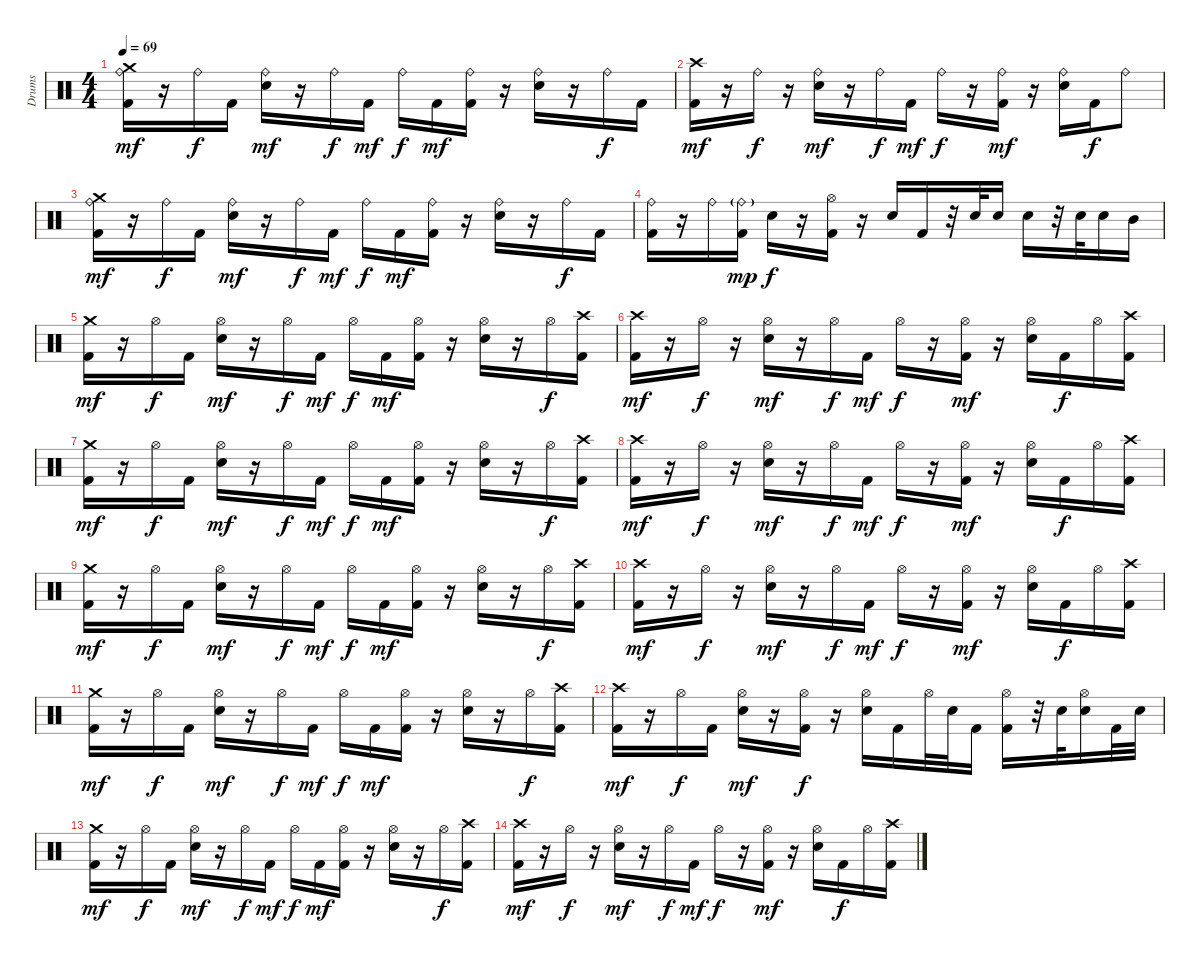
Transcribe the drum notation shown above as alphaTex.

\track ("Drums" "Drums") {instrument percussion}
\staff {score}
\articulation defaults
\ts (4 4)
\tempo 69
\clef neutral
\ks c
("Ride (bell)" "Kick (hit) 2" "Crash medium (hit)").16{dy mf} r.16 "Ride (bell)".16{dy f} "Kick (hit) 2".16 ("Ride (bell)" "Electric Snare (hit)").16{dy mf} r.16 "Ride (bell)".16{dy f} "Kick (hit) 2".16{dy mf} "Ride (bell)".16{dy f} "Kick (hit) 2".16{dy mf} ("Ride (bell)" "Kick (hit) 2").16 r.16 ("Ride (bell)" "Electric Snare (hit)").16 r.16 "Ride (bell)".16{dy f} "Kick (hit) 2".16 |
("Kick (hit) 2" "Crash high (hit)").16{dy mf} r.16 "Ride (bell)".16{dy f} r.16 ("Ride (bell)" "Electric Snare (hit)").16{dy mf} r.16 "Ride (bell)".16{dy f} "Kick (hit) 2".16{dy mf} "Ride (bell)".16{dy f} r.16 ("Ride (bell)" "Kick (hit) 2").16{dy mf} r.16 ("Ride (bell)" "Electric Snare (hit)").16 "Kick (hit) 2".16{dy f} "Ride (bell)".8 |
("Ride (bell)" "Kick (hit) 2" "Crash medium (hit)").16{dy mf} r.16 "Ride (bell)".16{dy f} "Kick (hit) 2".16 ("Ride (bell)" "Electric Snare (hit)").16{dy mf} r.16 "Ride (bell)".16{dy f} "Kick (hit) 2".16{dy mf} "Ride (bell)".16{dy f} "Kick (hit) 2".16{dy mf} ("Ride (bell)" "Kick (hit) 2").16 r.16 ("Ride (bell)" "Electric Snare (hit)").16 r.16 "Ride (bell)".16{dy f} "Kick (hit) 2".16 |
("Kick (hit) 2" "Ride (bell)").16 r.16 "Ride (bell)".16 ("Kick (hit) 2" "Ride (bell)"{g}).16{dy mp} "Electric Snare (hit)".16{dy f} r.16 ("Kick (hit) 2" "Hi-Hat (open)").16 r.16 "Electric Snare (hit)".16 "Kick (hit) 2".16 r.32 "Electric Snare (hit)".32 "Electric Snare (hit)".16 "Electric Snare (hit)".16 r.32 "Electric Snare (hit)".32 "Electric Snare (hit)".16 "Mid Tom (hit)".16 |
("Kick (hit) 2" "Crash medium (hit)").16{dy mf} r.16 "Hi-Hat (open)".16{dy f} "Kick (hit) 2".16 ("Hi-Hat (open)" "Electric Snare (hit)").16{dy mf} r.16 "Hi-Hat (open)".16{dy f} "Kick (hit) 2".16{dy mf} "Hi-Hat (open)".16{dy f} "Kick (hit) 2".16{dy mf} ("Hi-Hat (open)" "Kick (hit) 2").16 r.16 ("Hi-Hat (open)" "Electric Snare (hit)").16 r.16 "Hi-Hat (open)".16{dy f} ("Kick (hit) 2" "Crash high (hit)").16 |
("Kick (hit) 2" "Crash high (hit)").16{dy mf} r.16 "Hi-Hat (open)".16{dy f} r.16 ("Hi-Hat (open)" "Electric Snare (hit)").16{dy mf} r.16 "Hi-Hat (open)".16{dy f} "Kick (hit) 2".16{dy mf} "Hi-Hat (open)".16{dy f} r.16 ("Hi-Hat (open)" "Kick (hit) 2").16{dy mf} r.16 ("Hi-Hat (open)" "Electric Snare (hit)").16 "Kick (hit) 2".16{dy f} "Hi-Hat (open)".16 ("Crash high (hit)" "Kick (hit) 2").16 |
("Kick (hit) 2" "Crash medium (hit)").16{dy mf} r.16 "Hi-Hat (open)".16{dy f} "Kick (hit) 2".16 ("Hi-Hat (open)" "Electric Snare (hit)").16{dy mf} r.16 "Hi-Hat (open)".16{dy f} "Kick (hit) 2".16{dy mf} "Hi-Hat (open)".16{dy f} "Kick (hit) 2".16{dy mf} ("Hi-Hat (open)" "Kick (hit) 2").16 r.16 ("Hi-Hat (open)" "Electric Snare (hit)").16 r.16 "Hi-Hat (open)".16{dy f} ("Kick (hit) 2" "Crash high (hit)").16 |
("Kick (hit) 2" "Crash high (hit)").16{dy mf} r.16 "Hi-Hat (open)".16{dy f} r.16 ("Hi-Hat (open)" "Electric Snare (hit)").16{dy mf} r.16 "Hi-Hat (open)".16{dy f} "Kick (hit) 2".16{dy mf} "Hi-Hat (open)".16{dy f} r.16 ("Hi-Hat (open)" "Kick (hit) 2").16{dy mf} r.16 ("Hi-Hat (open)" "Electric Snare (hit)").16 "Kick (hit) 2".16{dy f} "Hi-Hat (open)".16 ("Crash high (hit)" "Kick (hit) 2").16 |
("Kick (hit) 2" "Crash medium (hit)").16{dy mf} r.16 "Hi-Hat (open)".16{dy f} "Kick (hit) 2".16 ("Hi-Hat (open)" "Electric Snare (hit)").16{dy mf} r.16 "Hi-Hat (open)".16{dy f} "Kick (hit) 2".16{dy mf} "Hi-Hat (open)".16{dy f} "Kick (hit) 2".16{dy mf} ("Hi-Hat (open)" "Kick (hit) 2").16 r.16 ("Hi-Hat (open)" "Electric Snare (hit)").16 r.16 "Hi-Hat (open)".16{dy f} ("Kick (hit) 2" "Crash high (hit)").16 |
("Kick (hit) 2" "Crash high (hit)").16{dy mf} r.16 "Hi-Hat (open)".16{dy f} r.16 ("Hi-Hat (open)" "Electric Snare (hit)").16{dy mf} r.16 "Hi-Hat (open)".16{dy f} "Kick (hit) 2".16{dy mf} "Hi-Hat (open)".16{dy f} r.16 ("Hi-Hat (open)" "Kick (hit) 2").16{dy mf} r.16 ("Hi-Hat (open)" "Electric Snare (hit)").16 "Kick (hit) 2".16{dy f} "Hi-Hat (open)".16 ("Crash high (hit)" "Kick (hit) 2").16 |
("Kick (hit) 2" "Crash medium (hit)").16{dy mf} r.16 "Hi-Hat (open)".16{dy f} "Kick (hit) 2".16 ("Hi-Hat (open)" "Electric Snare (hit)").16{dy mf} r.16 "Hi-Hat (open)".16{dy f} "Kick (hit) 2".16{dy mf} "Hi-Hat (open)".16{dy f} "Kick (hit) 2".16{dy mf} ("Hi-Hat (open)" "Kick (hit) 2").16 r.16 ("Hi-Hat (open)" "Electric Snare (hit)").16 r.16 "Hi-Hat (open)".16{dy f} ("Kick (hit) 2" "Crash high (hit)").16 |
("Kick (hit) 2" "Crash high (hit)").16{dy mf} r.16 "Hi-Hat (open)".16{dy f} "Kick (hit) 2".16 ("Hi-Hat (open)" "Electric Snare (hit)").16{dy mf} r.16 ("Hi-Hat (open)" "Kick (hit) 2").16{dy f} r.16 ("Electric Snare (hit)" "Hi-Hat (open)").16 "Kick (hit) 2".16 "Hi-Hat (open)".32 "Electric Snare (hit)".32 "Kick (hit) 2".16 ("Kick (hit) 2" "Hi-Hat (open)").16 r.32 "Electric Snare (hit)".32 ("Electric Snare (hit)" "Hi-Hat (open)").16 "Kick (hit) 2".32 "Electric Snare (hit)".32 |
("Kick (hit) 2" "Crash medium (hit)").16{dy mf} r.16 "Hi-Hat (open)".16{dy f} "Kick (hit) 2".16 ("Hi-Hat (open)" "Electric Snare (hit)").16{dy mf} r.16 "Hi-Hat (open)".16{dy f} "Kick (hit) 2".16{dy mf} "Hi-Hat (open)".16{dy f} "Kick (hit) 2".16{dy mf} ("Hi-Hat (open)" "Kick (hit) 2").16 r.16 ("Hi-Hat (open)" "Electric Snare (hit)").16 r.16 "Hi-Hat (open)".16{dy f} ("Kick (hit) 2" "Crash high (hit)").16 |
("Kick (hit) 2" "Crash high (hit)").16{dy mf} r.16 "Hi-Hat (open)".16{dy f} r.16 ("Hi-Hat (open)" "Electric Snare (hit)").16{dy mf} r.16 "Hi-Hat (open)".16{dy f} "Kick (hit) 2".16{dy mf} "Hi-Hat (open)".16{dy f} r.16 ("Hi-Hat (open)" "Kick (hit) 2").16{dy mf} r.16 ("Hi-Hat (open)" "Electric Snare (hit)").16 "Kick (hit) 2".16{dy f} "Hi-Hat (open)".16 ("Crash high (hit)" "Kick (hit) 2").16
